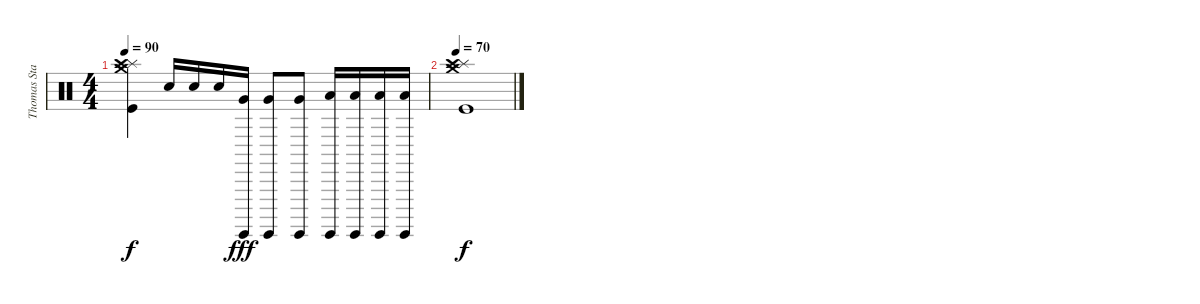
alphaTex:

\track ("Thomas Stauch" "Thomas Sta") {instrument percussion}
\staff {score}
\articulation defaults
\ts (4 4)
\tempo 90
\clef neutral
\ks c
("Crash medium (hit)" "Splash (hit)" "Crash high (hit)" "Kick (hit)").4{dy f} "Electric Snare (hit)".16 "Electric Snare (hit)".16 "Electric Snare (hit)".16 ("Surdo (hit)" "Very Low Tom (hit)").16{dy fff} ("Surdo (hit)" "Very Low Tom (hit)").8 ("Surdo (hit)" "Very Low Tom (hit)").8 ("Surdo (hit)" "Low Floor Tom (hit)").16 ("Surdo (hit)" "Low Floor Tom (hit)").16 ("Surdo (hit)" "Low Floor Tom (hit)").16 ("Surdo (hit)" "Low Floor Tom (hit)").16 |
\tempo 70
("Crash medium (hit)" "Splash (hit)" "Crash high (hit)" "Kick (hit)").1{dy f}
